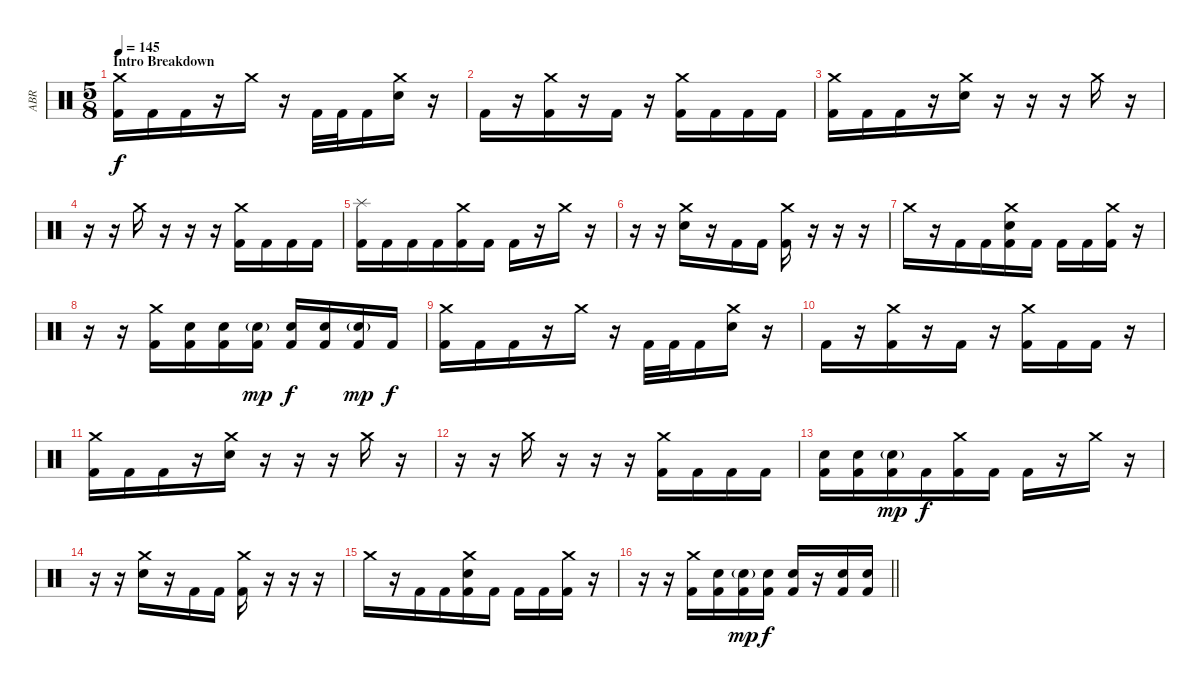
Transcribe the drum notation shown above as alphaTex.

\track ("ABR" "ABR") {instrument percussion}
\staff {score}
\articulation defaults
\ts (5 8)
\section ("" "Intro Breakdown")
\tempo 145
\clef neutral
\ks c
("Crash medium (hit)" "Kick (hit) 2").16{dy f volume 16 balance 8} "Kick (hit) 2".16 "Kick (hit) 2".16 r.16 "Crash medium (hit)".16 r.16 "Kick (hit) 2".32 "Kick (hit) 2".32 "Kick (hit) 2".16 ("Crash medium (hit)" "Snare (hit) 2").16 r.16 |
"Kick (hit) 2".16 r.16 ("Crash medium (hit)" "Kick (hit) 2").16 r.16 "Kick (hit) 2".16 r.16 ("Crash medium (hit)" "Kick (hit) 2").16 "Kick (hit) 2".16 "Kick (hit) 2".16 "Kick (hit) 2".16 |
("Crash medium (hit)" "Kick (hit) 2").16 "Kick (hit) 2".16 "Kick (hit) 2".16 r.16 ("Crash medium (hit)" "Snare (hit) 2").16 r.16 r.16 r.16 "Crash medium (hit)".16 r.16 |
r.16 r.16 "Crash medium (hit)".16 r.16 r.16 r.16 ("Crash medium (hit)" "Kick (hit) 2").16 "Kick (hit) 2".16 "Kick (hit) 2".16 "Kick (hit) 2".16 |
("Splash (hit)" "Kick (hit) 2").16 "Kick (hit) 2".16 "Kick (hit) 2".16 "Kick (hit) 2".16 ("Crash medium (hit)" "Kick (hit) 2").16 "Kick (hit) 2".16 "Kick (hit) 2".16 r.16 "Crash medium (hit)".16 r.16 |
r.16 r.16 ("Crash medium (hit)" "Snare (hit) 2").16 r.16 "Kick (hit) 2".16 "Kick (hit) 2".16 ("Crash medium (hit)" "Kick (hit) 2").16 r.16 r.16 r.16 |
"Crash medium (hit)".16 r.16 "Kick (hit) 2".16 "Kick (hit) 2".16 ("Crash medium (hit)" "Snare (hit) 2" "Kick (hit) 2").16 "Kick (hit) 2".16 "Kick (hit) 2".16 "Kick (hit) 2".16 ("Crash medium (hit)" "Kick (hit) 2").16 r.16 |
r.16 r.16 ("Crash medium (hit)" "Kick (hit) 2").16 ("Snare (hit) 2" "Kick (hit) 2").16 ("Snare (hit) 2" "Kick (hit) 2").16 ("Snare (hit) 2"{g} "Kick (hit) 2").16{dy mp} ("Snare (hit) 2" "Kick (hit) 2").16{dy f} ("Snare (hit) 2" "Kick (hit) 2").16 ("Snare (hit) 2"{g} "Kick (hit) 2").16{dy mp} "Kick (hit) 2".16{dy f} |
("Crash medium (hit)" "Kick (hit) 2").16 "Kick (hit) 2".16 "Kick (hit) 2".16 r.16 "Crash medium (hit)".16 r.16 "Kick (hit) 2".32 "Kick (hit) 2".32 "Kick (hit) 2".16 ("Crash medium (hit)" "Snare (hit) 2").16 r.16 |
"Kick (hit) 2".16 r.16 ("Crash medium (hit)" "Kick (hit) 2").16 r.16 "Kick (hit) 2".16 r.16 ("Crash medium (hit)" "Kick (hit) 2").16 "Kick (hit) 2".16 "Kick (hit) 2".16 r.16 |
("Crash medium (hit)" "Kick (hit) 2").16 "Kick (hit) 2".16 "Kick (hit) 2".16 r.16 ("Crash medium (hit)" "Snare (hit) 2").16 r.16 r.16 r.16 "Crash medium (hit)".16 r.16 |
r.16 r.16 "Crash medium (hit)".16 r.16 r.16 r.16 ("Crash medium (hit)" "Kick (hit) 2").16 "Kick (hit) 2".16 "Kick (hit) 2".16 "Kick (hit) 2".16 |
("Snare (hit) 2" "Kick (hit) 2").16 ("Snare (hit) 2" "Kick (hit) 2").16 ("Snare (hit) 2"{g} "Kick (hit) 2").16{dy mp} "Kick (hit) 2".16{dy f} ("Crash medium (hit)" "Kick (hit) 2").16 "Kick (hit) 2".16 "Kick (hit) 2".16 r.16 "Crash medium (hit)".16 r.16 |
r.16 r.16 ("Crash medium (hit)" "Snare (hit) 2").16 r.16 "Kick (hit) 2".16 "Kick (hit) 2".16 ("Crash medium (hit)" "Kick (hit) 2").16 r.16 r.16 r.16 |
"Crash medium (hit)".16 r.16 "Kick (hit) 2".16 "Kick (hit) 2".16 ("Crash medium (hit)" "Snare (hit) 2" "Kick (hit) 2").16 "Kick (hit) 2".16 "Kick (hit) 2".16 "Kick (hit) 2".16 ("Crash medium (hit)" "Kick (hit) 2").16 r.16 |
\barLineRight lightlight
r.16 r.16 ("Crash medium (hit)" "Kick (hit) 2").16 ("Snare (hit) 2" "Kick (hit) 2").16 ("Snare (hit) 2"{g} "Kick (hit) 2").16{dy mp} ("Snare (hit) 2" "Kick (hit) 2").16{dy f} ("Snare (hit) 2" "Kick (hit) 2").16 r.16 ("Snare (hit) 2" "Kick (hit) 2").16 ("Snare (hit) 2" "Kick (hit) 2").16
